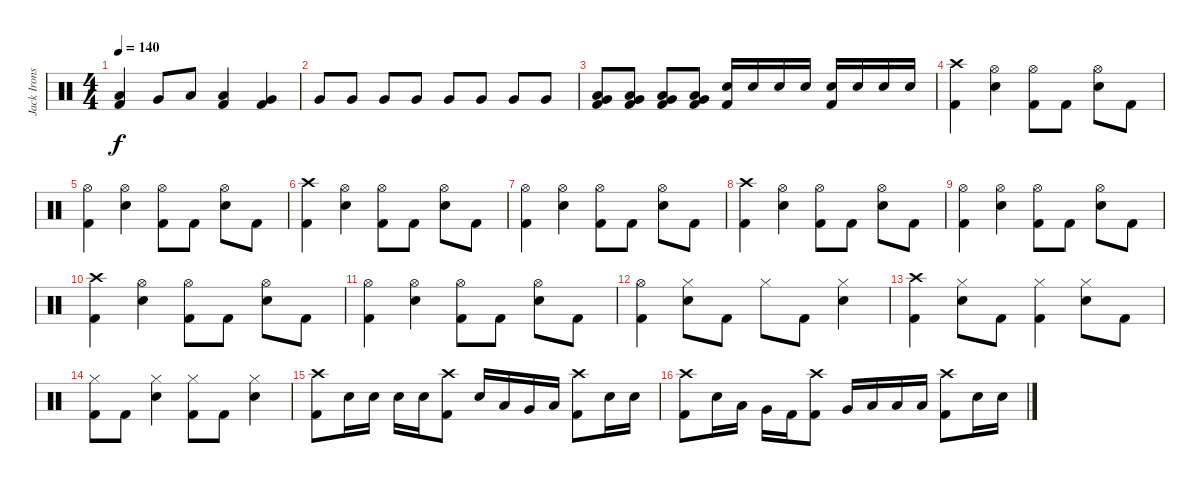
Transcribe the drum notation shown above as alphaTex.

\track ("Jack Irons" "Jack Irons") {instrument percussion}
\staff {score}
\articulation defaults
\ts (4 4)
\tempo 140
\clef neutral
\ks c
("Low Floor Tom (hit)" "Kick (hit) 2").4{dy f} "Very Low Tom (hit)".8 "Low Tom (hit)".8 ("Low Floor Tom (hit)" "Kick (hit) 2").4 ("Very Low Tom (hit)" "Kick (hit) 2").4 |
"Very Low Tom (hit)".8 "Very Low Tom (hit)".8 "Very Low Tom (hit)".8 "Very Low Tom (hit)".8 "Very Low Tom (hit)".8 "Very Low Tom (hit)".8 "Very Low Tom (hit)".8 "Very Low Tom (hit)".8 |
("Very Low Tom (hit)" "Low Floor Tom (hit)" "Kick (hit) 2").8 ("Very Low Tom (hit)" "Low Floor Tom (hit)" "Kick (hit) 2").8 ("Very Low Tom (hit)" "Low Floor Tom (hit)" "Kick (hit) 2").8 ("Very Low Tom (hit)" "Low Floor Tom (hit)" "Kick (hit) 2").8 ("Electric Snare (hit)" "Kick (hit) 2").16 "Electric Snare (hit)".16 "Electric Snare (hit)".16 "Electric Snare (hit)".16 ("Electric Snare (hit)" "Kick (hit) 2").16 "Electric Snare (hit)".16 "Electric Snare (hit)".16 "Electric Snare (hit)".16 |
("Crash high (hit)" "Kick (hit) 2").4 ("Hi-Hat (open)" "Electric Snare (hit)").4 ("Hi-Hat (open)" "Kick (hit) 2").8 "Kick (hit) 2".8 ("Hi-Hat (open)" "Electric Snare (hit)").8 "Kick (hit) 2".8 |
("Hi-Hat (open)" "Kick (hit) 2").4 ("Hi-Hat (open)" "Electric Snare (hit)").4 ("Hi-Hat (open)" "Kick (hit) 2").8 "Kick (hit) 2".8 ("Hi-Hat (open)" "Electric Snare (hit)").8 "Kick (hit) 2".8 |
("Crash high (hit)" "Kick (hit) 2").4 ("Hi-Hat (open)" "Electric Snare (hit)").4 ("Hi-Hat (open)" "Kick (hit) 2").8 "Kick (hit) 2".8 ("Hi-Hat (open)" "Electric Snare (hit)").8 "Kick (hit) 2".8 |
("Hi-Hat (open)" "Kick (hit) 2").4 ("Hi-Hat (open)" "Electric Snare (hit)").4 ("Hi-Hat (open)" "Kick (hit) 2").8 "Kick (hit) 2".8 ("Hi-Hat (open)" "Electric Snare (hit)").8 "Kick (hit) 2".8 |
("Crash high (hit)" "Kick (hit) 2").4 ("Hi-Hat (open)" "Electric Snare (hit)").4 ("Hi-Hat (open)" "Kick (hit) 2").8 "Kick (hit) 2".8 ("Hi-Hat (open)" "Electric Snare (hit)").8 "Kick (hit) 2".8 |
("Hi-Hat (open)" "Kick (hit) 2").4 ("Hi-Hat (open)" "Electric Snare (hit)").4 ("Hi-Hat (open)" "Kick (hit) 2").8 "Kick (hit) 2".8 ("Hi-Hat (open)" "Electric Snare (hit)").8 "Kick (hit) 2".8 |
("Crash high (hit)" "Kick (hit) 2").4 ("Hi-Hat (open)" "Electric Snare (hit)").4 ("Hi-Hat (open)" "Kick (hit) 2").8 "Kick (hit) 2".8 ("Hi-Hat (open)" "Electric Snare (hit)").8 "Kick (hit) 2".8 |
("Hi-Hat (open)" "Kick (hit) 2").4 ("Hi-Hat (open)" "Electric Snare (hit)").4 ("Hi-Hat (open)" "Kick (hit) 2").8 "Kick (hit) 2".8 ("Hi-Hat (open)" "Electric Snare (hit)").8 "Kick (hit) 2".8 |
("Hi-Hat (open)" "Kick (hit) 2").4 ("Hi-Hat (closed)" "Electric Snare (hit)").8 "Kick (hit) 2".8 "Hi-Hat (closed)".8 "Kick (hit) 2".8 ("Hi-Hat (closed)" "Electric Snare (hit)").4 |
("Crash high (hit)" "Kick (hit) 2").4 ("Hi-Hat (closed)" "Electric Snare (hit)").8 "Kick (hit) 2".8 ("Hi-Hat (closed)" "Kick (hit) 2").4 ("Hi-Hat (closed)" "Electric Snare (hit)").8 "Kick (hit) 2".8 |
("Hi-Hat (closed)" "Kick (hit) 2").8 "Kick (hit) 2".8 ("Hi-Hat (closed)" "Electric Snare (hit)").4 ("Hi-Hat (closed)" "Kick (hit) 2").8 "Kick (hit) 2".8 ("Hi-Hat (closed)" "Electric Snare (hit)").4 |
("Crash high (hit)" "Kick (hit) 2").8 "Electric Snare (hit)".16 "Electric Snare (hit)".16 "Electric Snare (hit)".16 "Electric Snare (hit)".16 ("Crash high (hit)" "Kick (hit) 2").8 "Electric Snare (hit)".16 "Low Tom (hit)".16 "Very Low Tom (hit)".16 "Low Floor Tom (hit)".16 ("Crash high (hit)" "Kick (hit) 2").8 "Electric Snare (hit)".16 "Electric Snare (hit)".16 |
("Crash high (hit)" "Kick (hit) 2").8 "Electric Snare (hit)".16 "Low Tom (hit)".16 "Very Low Tom (hit)".16 "Kick (hit) 2".16 ("Crash high (hit)" "Kick (hit) 2").8 "Very Low Tom (hit)".16 "Low Floor Tom (hit)".16 "Low Floor Tom (hit)".16 "Low Floor Tom (hit)".16 ("Crash high (hit)" "Kick (hit) 2").8 "Electric Snare (hit)".16 "Electric Snare (hit)".16
